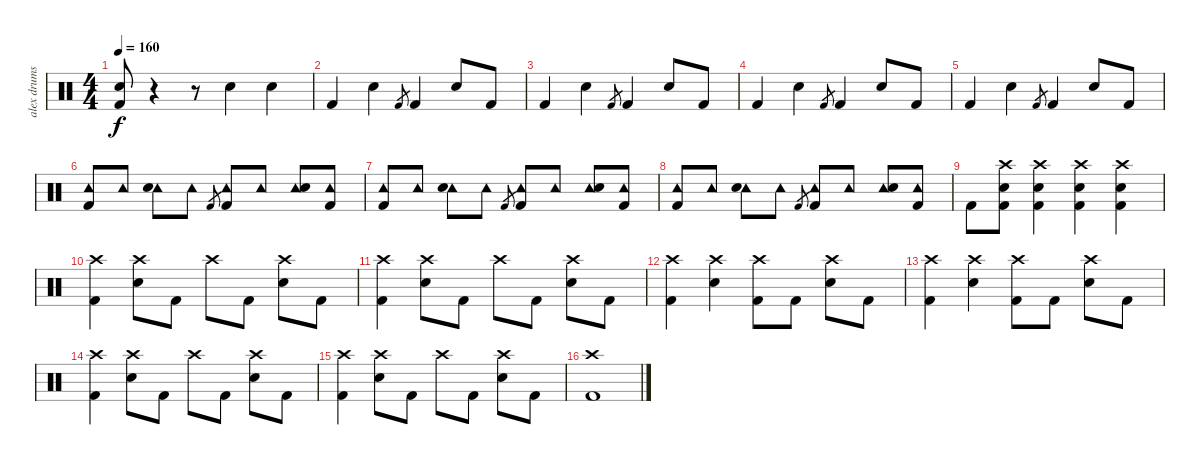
\track ("alex drums" "alex drums") {instrument percussion}
\staff {score}
\articulation defaults
\ts (4 4)
\tempo 160
\clef neutral
\ks c
("Snare (hit) 2" "Kick (hit) 2").8{dy f} r.4 r.8 "Snare (hit) 2".4 "Snare (hit) 2".4 |
"Kick (hit) 2".4 "Snare (hit) 2".4 "Kick (hit) 2".8{gr} "Kick (hit) 2".4 "Snare (hit) 2".8 "Kick (hit) 2".8 |
"Kick (hit) 2".4 "Snare (hit) 2".4 "Kick (hit) 2".8{gr} "Kick (hit) 2".4 "Snare (hit) 2".8 "Kick (hit) 2".8 |
"Kick (hit) 2".4 "Snare (hit) 2".4 "Kick (hit) 2".8{gr} "Kick (hit) 2".4 "Snare (hit) 2".8 "Kick (hit) 2".8 |
"Kick (hit) 2".4 "Snare (hit) 2".4 "Kick (hit) 2".8{gr} "Kick (hit) 2".4 "Snare (hit) 2".8 "Kick (hit) 2".8 |
("Tambourine (hit)" "Kick (hit) 2").8 "Tambourine (hit)".8 ("Tambourine (hit)" "Snare (hit) 2").8 "Tambourine (hit)".8 "Kick (hit) 2".8{gr} ("Tambourine (hit)" "Kick (hit) 2").8 "Tambourine (hit)".8 ("Tambourine (hit)" "Snare (hit) 2").8 ("Tambourine (hit)" "Kick (hit) 2").8 |
("Tambourine (hit)" "Kick (hit) 2").8 "Tambourine (hit)".8 ("Tambourine (hit)" "Snare (hit) 2").8 "Tambourine (hit)".8 "Kick (hit) 2".8{gr} ("Tambourine (hit)" "Kick (hit) 2").8 "Tambourine (hit)".8 ("Tambourine (hit)" "Snare (hit) 2").8 ("Tambourine (hit)" "Kick (hit) 2").8 |
("Tambourine (hit)" "Kick (hit) 2").8 "Tambourine (hit)".8 ("Tambourine (hit)" "Snare (hit) 2").8 "Tambourine (hit)".8 "Kick (hit) 2".8{gr} ("Tambourine (hit)" "Kick (hit) 2").8 "Tambourine (hit)".8 ("Tambourine (hit)" "Snare (hit) 2").8 ("Tambourine (hit)" "Kick (hit) 2").8 |
"Kick (hit) 2".8 ("Crash high (hit)" "Snare (hit) 2" "Kick (hit) 2").8 ("Crash high (hit)" "Snare (hit) 2" "Kick (hit) 2").4 ("Crash high (hit)" "Snare (hit) 2" "Kick (hit) 2").4 ("Crash high (hit)" "Snare (hit) 2" "Kick (hit) 2").4 |
("Crash high (hit)" "Kick (hit) 2").4 ("Crash high (hit)" "Snare (hit) 2").8 "Kick (hit) 2".8 "Crash high (hit)".8 "Kick (hit) 2".8 ("Crash high (hit)" "Snare (hit) 2").8 "Kick (hit) 2".8 |
("Crash high (hit)" "Kick (hit) 2").4 ("Crash high (hit)" "Snare (hit) 2").8 "Kick (hit) 2".8 "Crash high (hit)".8 "Kick (hit) 2".8 ("Crash high (hit)" "Snare (hit) 2").8 "Kick (hit) 2".8 |
("Crash high (hit)" "Kick (hit) 2").4 ("Crash high (hit)" "Snare (hit) 2").4 ("Crash high (hit)" "Kick (hit) 2").8 "Kick (hit) 2".8 ("Crash high (hit)" "Snare (hit) 2").8 "Kick (hit) 2".8 |
("Crash high (hit)" "Kick (hit) 2").4 ("Crash high (hit)" "Snare (hit) 2").4 ("Crash high (hit)" "Kick (hit) 2").8 "Kick (hit) 2".8 ("Crash high (hit)" "Snare (hit) 2").8 "Kick (hit) 2".8 |
("Crash high (hit)" "Kick (hit) 2").4 ("Crash high (hit)" "Snare (hit) 2").8 "Kick (hit) 2".8 "Crash high (hit)".8 "Kick (hit) 2".8 ("Crash high (hit)" "Snare (hit) 2").8 "Kick (hit) 2".8 |
("Crash high (hit)" "Kick (hit) 2").4 ("Crash high (hit)" "Snare (hit) 2").8 "Kick (hit) 2".8 "Crash high (hit)".8 "Kick (hit) 2".8 ("Crash high (hit)" "Snare (hit) 2").8 "Kick (hit) 2".8 |
("Crash high (hit)" "Kick (hit) 2").1
